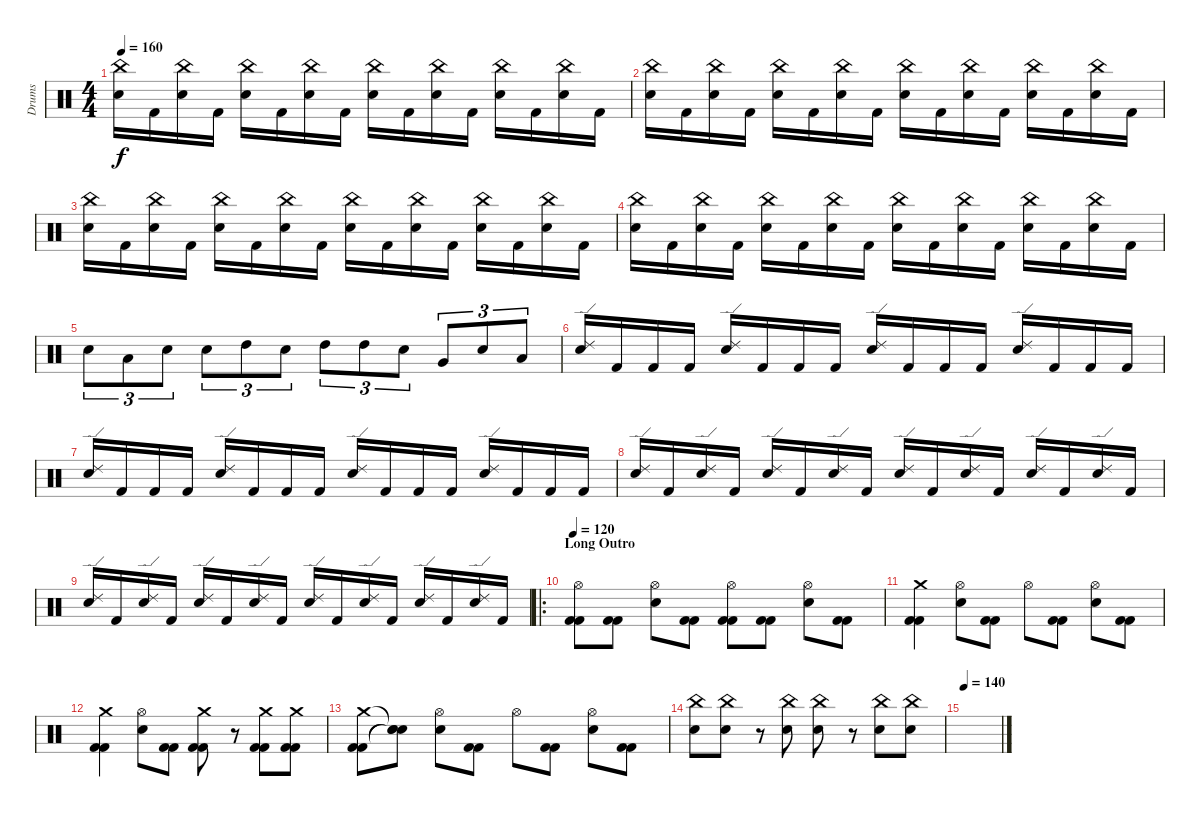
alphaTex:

\track ("Drums" "Drums") {instrument percussion}
\staff {score}
\articulation defaults
\ts (4 4)
\tempo 160
\clef neutral
\ks c
("China (hit)" "Electric Snare (hit)").16{dy f} "Kick (hit) 2".16 ("Electric Snare (hit)" "China (hit)").16 "Kick (hit) 2".16 ("China (hit)" "Electric Snare (hit)").16 "Kick (hit) 2".16 ("Electric Snare (hit)" "China (hit)").16 "Kick (hit) 2".16 ("China (hit)" "Electric Snare (hit)").16 "Kick (hit) 2".16 ("Electric Snare (hit)" "China (hit)").16 "Kick (hit) 2".16 ("China (hit)" "Electric Snare (hit)").16 "Kick (hit) 2".16 ("Electric Snare (hit)" "China (hit)").16 "Kick (hit) 2".16 |
("China (hit)" "Electric Snare (hit)").16 "Kick (hit) 2".16 ("Electric Snare (hit)" "China (hit)").16 "Kick (hit) 2".16 ("China (hit)" "Electric Snare (hit)").16 "Kick (hit) 2".16 ("Electric Snare (hit)" "China (hit)").16 "Kick (hit) 2".16 ("China (hit)" "Electric Snare (hit)").16 "Kick (hit) 2".16 ("Electric Snare (hit)" "China (hit)").16 "Kick (hit) 2".16 ("China (hit)" "Electric Snare (hit)").16 "Kick (hit) 2".16 ("Electric Snare (hit)" "China (hit)").16 "Kick (hit) 2".16 |
("China (hit)" "Electric Snare (hit)").16 "Kick (hit) 2".16 ("Electric Snare (hit)" "China (hit)").16 "Kick (hit) 2".16 ("China (hit)" "Electric Snare (hit)").16 "Kick (hit) 2".16 ("Electric Snare (hit)" "China (hit)").16 "Kick (hit) 2".16 ("China (hit)" "Electric Snare (hit)").16 "Kick (hit) 2".16 ("Electric Snare (hit)" "China (hit)").16 "Kick (hit) 2".16 ("China (hit)" "Electric Snare (hit)").16 "Kick (hit) 2".16 ("Electric Snare (hit)" "China (hit)").16 "Kick (hit) 2".16 |
("China (hit)" "Electric Snare (hit)").16 "Kick (hit) 2".16 ("Electric Snare (hit)" "China (hit)").16 "Kick (hit) 2".16 ("China (hit)" "Electric Snare (hit)").16 "Kick (hit) 2".16 ("Electric Snare (hit)" "China (hit)").16 "Kick (hit) 2".16 ("China (hit)" "Electric Snare (hit)").16 "Kick (hit) 2".16 ("Electric Snare (hit)" "China (hit)").16 "Kick (hit) 2".16 ("China (hit)" "Electric Snare (hit)").16 "Kick (hit) 2".16 ("Electric Snare (hit)" "China (hit)").16 "Kick (hit) 2".16 |
"Electric Snare (hit)".8{tu (3 2)} "Low Tom (hit)".8{tu (3 2)} "Electric Snare (hit)".8{tu (3 2)} "Electric Snare (hit)".8{tu (3 2)} "High Tom (hit)".8{tu (3 2)} "Electric Snare (hit)".8{tu (3 2)} "High Tom (hit)".8{tu (3 2)} "High Tom (hit)".8{tu (3 2)} "Electric Snare (hit)".8{tu (3 2)} "Very Low Tom (hit)".8{tu (3 2)} "Electric Snare (hit)".8{tu (3 2)} "Low Tom (hit)".8{tu (3 2)} |
("Ride (edge) 2" "Electric Snare (hit)").16 "Kick (hit) 2".16 "Kick (hit) 2".16 "Kick (hit) 2".16 ("Ride (edge) 2" "Electric Snare (hit)").16 "Kick (hit) 2".16 "Kick (hit) 2".16 "Kick (hit) 2".16 ("Electric Snare (hit)" "Ride (edge) 2").16 "Kick (hit) 2".16 "Kick (hit) 2".16 "Kick (hit) 2".16 ("Ride (edge) 2" "Electric Snare (hit)").16 "Kick (hit) 2".16 "Kick (hit) 2".16 "Kick (hit) 2".16 |
("Ride (edge) 2" "Electric Snare (hit)").16 "Kick (hit) 2".16 "Kick (hit) 2".16 "Kick (hit) 2".16 ("Ride (edge) 2" "Electric Snare (hit)").16 "Kick (hit) 2".16 "Kick (hit) 2".16 "Kick (hit) 2".16 ("Electric Snare (hit)" "Ride (edge) 2").16 "Kick (hit) 2".16 "Kick (hit) 2".16 "Kick (hit) 2".16 ("Ride (edge) 2" "Electric Snare (hit)").16 "Kick (hit) 2".16 "Kick (hit) 2".16 "Kick (hit) 2".16 |
("Ride (edge) 2" "Electric Snare (hit)").16 "Kick (hit) 2".16 ("Electric Snare (hit)" "Ride (edge) 2").16 "Kick (hit) 2".16 ("Ride (edge) 2" "Electric Snare (hit)").16 "Kick (hit) 2".16 ("Electric Snare (hit)" "Ride (edge) 2").16 "Kick (hit) 2".16 ("Ride (edge) 2" "Electric Snare (hit)").16 "Kick (hit) 2".16 ("Ride (edge) 2" "Electric Snare (hit)").16 "Kick (hit) 2".16 ("Electric Snare (hit)" "Ride (edge) 2").16 "Kick (hit) 2".16 ("Electric Snare (hit)" "Ride (edge) 2").16 "Kick (hit) 2".16 |
("Ride (edge) 2" "Electric Snare (hit)").16 "Kick (hit) 2".16 ("Electric Snare (hit)" "Ride (edge) 2").16 "Kick (hit) 2".16 ("Ride (edge) 2" "Electric Snare (hit)").16 "Kick (hit) 2".16 ("Electric Snare (hit)" "Ride (edge) 2").16 "Kick (hit) 2".16 ("Ride (edge) 2" "Electric Snare (hit)").16 "Kick (hit) 2".16 ("Ride (edge) 2" "Electric Snare (hit)").16 "Kick (hit) 2".16 ("Electric Snare (hit)" "Ride (edge) 2").16 "Kick (hit) 2".16 ("Electric Snare (hit)" "Ride (edge) 2").16 "Kick (hit) 2".16 |
\ro
\section ("" "Long Outro")
\tempo 120
("Kick (hit) 2" "Hi-Hat (open)" "Kick (hit) 2").8 ("Kick (hit) 2" "Kick (hit) 2").8 ("Electric Snare (hit)" "Hi-Hat (open)").8 ("Kick (hit) 2" "Kick (hit) 2").8 ("Kick (hit) 2" "Kick (hit) 2" "Hi-Hat (open)").8 ("Kick (hit) 2" "Kick (hit) 2").8 ("Electric Snare (hit)" "Hi-Hat (open)").8 ("Kick (hit) 2" "Kick (hit) 2").8 |
("Crash medium (hit)" "Kick (hit) 2" "Kick (hit) 2").4 ("Electric Snare (hit)" "Hi-Hat (open)").8 ("Kick (hit) 2" "Kick (hit) 2").8 "Hi-Hat (open)".8 ("Kick (hit) 2" "Kick (hit) 2").8 ("Electric Snare (hit)" "Hi-Hat (open)").8 ("Kick (hit) 2" "Kick (hit) 2").8 |
("Crash medium (hit)" "Kick (hit) 2" "Kick (hit) 2").4 ("Electric Snare (hit)" "Hi-Hat (open)").8 ("Kick (hit) 2" "Kick (hit) 2").8 ("Crash medium (hit)" "Kick (hit) 2" "Kick (hit) 2").8 r.8 ("Crash medium (hit)" "Kick (hit) 2" "Kick (hit) 2").8 ("Crash medium (hit)" "Kick (hit) 2" "Kick (hit) 2").8 |
("Kick (hit) 2" "Kick (hit) 2" "Crash medium (hit)").8 ("Snare (hit)"{t} "Snare (hit)"{t} "Snare (hit)"{t}).8 ("Electric Snare (hit)" "Hi-Hat (open)").8 ("Kick (hit) 2" "Kick (hit) 2").8 "Hi-Hat (open)".8 ("Kick (hit) 2" "Kick (hit) 2").8 ("Electric Snare (hit)" "Hi-Hat (open)").8 ("Kick (hit) 2" "Kick (hit) 2").8 |
("China (hit)" "Electric Snare (hit)").8 ("Electric Snare (hit)" "China (hit)").8 r.8 ("China (hit)" "Electric Snare (hit)").8 ("Electric Snare (hit)" "China (hit)").8 r.8 ("China (hit)" "Electric Snare (hit)").8 ("Electric Snare (hit)" "China (hit)").8 |
\tempo 140
